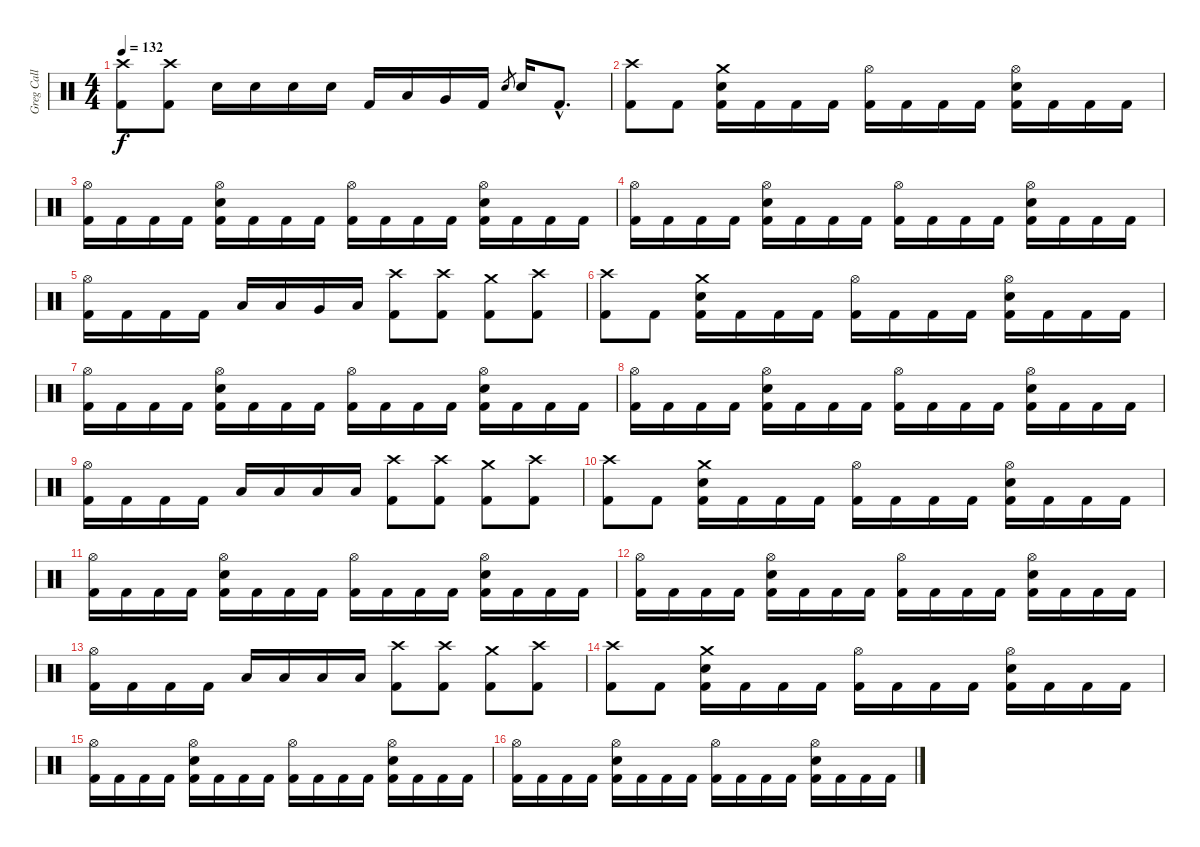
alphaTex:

\track ("Greg Call (Drums)" "Greg Call ") {instrument percussion}
\staff {score}
\articulation defaults
\ts (4 4)
\tempo 132
\clef neutral
\ks c
("Crash high (hit)" "Kick (hit) 2").8{dy f} ("Crash high (hit)" "Kick (hit) 2").8 "Snare (hit) 2".16 "Snare (hit) 2".16 "Snare (hit) 2".16 "Snare (hit) 2".16 "Kick (hit) 2".16 "Low Tom (hit)".16 "Very Low Tom (hit)".16 "Kick (hit) 2".16 "Snare (hit) 2".8{gr} "Snare (hit) 2".16 "Kick (hit) 2"{hac}.8{d} |
("Crash high (hit)" "Kick (hit) 2").8 "Kick (hit) 2".8 ("Crash medium (hit)" "Snare (hit) 2" "Kick (hit) 2").16 "Kick (hit) 2".16 "Kick (hit) 2".16 "Kick (hit) 2".16 ("Hi-Hat (open)" "Kick (hit) 2").16 "Kick (hit) 2".16 "Kick (hit) 2".16 "Kick (hit) 2".16 ("Hi-Hat (open)" "Snare (hit) 2" "Kick (hit) 2").16 "Kick (hit) 2".16 "Kick (hit) 2".16 "Kick (hit) 2".16 |
("Hi-Hat (open)" "Kick (hit) 2").16 "Kick (hit) 2".16 "Kick (hit) 2".16 "Kick (hit) 2".16 ("Hi-Hat (open)" "Snare (hit) 2" "Kick (hit) 2").16 "Kick (hit) 2".16 "Kick (hit) 2".16 "Kick (hit) 2".16 ("Hi-Hat (open)" "Kick (hit) 2").16 "Kick (hit) 2".16 "Kick (hit) 2".16 "Kick (hit) 2".16 ("Hi-Hat (open)" "Snare (hit) 2" "Kick (hit) 2").16 "Kick (hit) 2".16 "Kick (hit) 2".16 "Kick (hit) 2".16 |
("Hi-Hat (open)" "Kick (hit) 2").16 "Kick (hit) 2".16 "Kick (hit) 2".16 "Kick (hit) 2".16 ("Hi-Hat (open)" "Snare (hit) 2" "Kick (hit) 2").16 "Kick (hit) 2".16 "Kick (hit) 2".16 "Kick (hit) 2".16 ("Hi-Hat (open)" "Kick (hit) 2").16 "Kick (hit) 2".16 "Kick (hit) 2".16 "Kick (hit) 2".16 ("Hi-Hat (open)" "Snare (hit) 2" "Kick (hit) 2").16 "Kick (hit) 2".16 "Kick (hit) 2".16 "Kick (hit) 2".16 |
("Hi-Hat (open)" "Kick (hit) 2").16 "Kick (hit) 2".16 "Kick (hit) 2".16 "Kick (hit) 2".16 "Low Tom (hit)".16 "Low Tom (hit)".16 "Very Low Tom (hit)".16 "Low Floor Tom (hit)".16 ("Crash high (hit)" "Kick (hit) 2").8 ("Crash high (hit)" "Kick (hit) 2").8 ("Crash medium (hit)" "Kick (hit) 2").8 ("Crash high (hit)" "Kick (hit) 2").8 |
("Crash high (hit)" "Kick (hit) 2").8 "Kick (hit) 2".8 ("Crash medium (hit)" "Snare (hit) 2" "Kick (hit) 2").16 "Kick (hit) 2".16 "Kick (hit) 2".16 "Kick (hit) 2".16 ("Hi-Hat (open)" "Kick (hit) 2").16 "Kick (hit) 2".16 "Kick (hit) 2".16 "Kick (hit) 2".16 ("Hi-Hat (open)" "Snare (hit) 2" "Kick (hit) 2").16 "Kick (hit) 2".16 "Kick (hit) 2".16 "Kick (hit) 2".16 |
("Hi-Hat (open)" "Kick (hit) 2").16 "Kick (hit) 2".16 "Kick (hit) 2".16 "Kick (hit) 2".16 ("Hi-Hat (open)" "Snare (hit) 2" "Kick (hit) 2").16 "Kick (hit) 2".16 "Kick (hit) 2".16 "Kick (hit) 2".16 ("Hi-Hat (open)" "Kick (hit) 2").16 "Kick (hit) 2".16 "Kick (hit) 2".16 "Kick (hit) 2".16 ("Hi-Hat (open)" "Snare (hit) 2" "Kick (hit) 2").16 "Kick (hit) 2".16 "Kick (hit) 2".16 "Kick (hit) 2".16 |
("Hi-Hat (open)" "Kick (hit) 2").16 "Kick (hit) 2".16 "Kick (hit) 2".16 "Kick (hit) 2".16 ("Hi-Hat (open)" "Snare (hit) 2" "Kick (hit) 2").16 "Kick (hit) 2".16 "Kick (hit) 2".16 "Kick (hit) 2".16 ("Hi-Hat (open)" "Kick (hit) 2").16 "Kick (hit) 2".16 "Kick (hit) 2".16 "Kick (hit) 2".16 ("Hi-Hat (open)" "Snare (hit) 2" "Kick (hit) 2").16 "Kick (hit) 2".16 "Kick (hit) 2".16 "Kick (hit) 2".16 |
("Hi-Hat (open)" "Kick (hit) 2").16 "Kick (hit) 2".16 "Kick (hit) 2".16 "Kick (hit) 2".16 "Low Tom (hit)".16 "Low Tom (hit)".16 "Low Tom (hit)".16 "Low Tom (hit)".16 ("Crash high (hit)" "Kick (hit) 2").8 ("Crash high (hit)" "Kick (hit) 2").8 ("Crash medium (hit)" "Kick (hit) 2").8 ("Crash high (hit)" "Kick (hit) 2").8 |
("Crash high (hit)" "Kick (hit) 2").8 "Kick (hit) 2".8 ("Crash medium (hit)" "Snare (hit) 2" "Kick (hit) 2").16 "Kick (hit) 2".16 "Kick (hit) 2".16 "Kick (hit) 2".16 ("Hi-Hat (open)" "Kick (hit) 2").16 "Kick (hit) 2".16 "Kick (hit) 2".16 "Kick (hit) 2".16 ("Hi-Hat (open)" "Snare (hit) 2" "Kick (hit) 2").16 "Kick (hit) 2".16 "Kick (hit) 2".16 "Kick (hit) 2".16 |
("Hi-Hat (open)" "Kick (hit) 2").16 "Kick (hit) 2".16 "Kick (hit) 2".16 "Kick (hit) 2".16 ("Hi-Hat (open)" "Snare (hit) 2" "Kick (hit) 2").16 "Kick (hit) 2".16 "Kick (hit) 2".16 "Kick (hit) 2".16 ("Hi-Hat (open)" "Kick (hit) 2").16 "Kick (hit) 2".16 "Kick (hit) 2".16 "Kick (hit) 2".16 ("Hi-Hat (open)" "Snare (hit) 2" "Kick (hit) 2").16 "Kick (hit) 2".16 "Kick (hit) 2".16 "Kick (hit) 2".16 |
("Hi-Hat (open)" "Kick (hit) 2").16 "Kick (hit) 2".16 "Kick (hit) 2".16 "Kick (hit) 2".16 ("Hi-Hat (open)" "Snare (hit) 2" "Kick (hit) 2").16 "Kick (hit) 2".16 "Kick (hit) 2".16 "Kick (hit) 2".16 ("Hi-Hat (open)" "Kick (hit) 2").16 "Kick (hit) 2".16 "Kick (hit) 2".16 "Kick (hit) 2".16 ("Hi-Hat (open)" "Snare (hit) 2" "Kick (hit) 2").16 "Kick (hit) 2".16 "Kick (hit) 2".16 "Kick (hit) 2".16 |
("Hi-Hat (open)" "Kick (hit) 2").16 "Kick (hit) 2".16 "Kick (hit) 2".16 "Kick (hit) 2".16 "Low Tom (hit)".16 "Low Tom (hit)".16 "Low Tom (hit)".16 "Low Tom (hit)".16 ("Crash high (hit)" "Kick (hit) 2").8 ("Crash high (hit)" "Kick (hit) 2").8 ("Crash medium (hit)" "Kick (hit) 2").8 ("Crash high (hit)" "Kick (hit) 2").8 |
("Crash high (hit)" "Kick (hit) 2").8 "Kick (hit) 2".8 ("Crash medium (hit)" "Snare (hit) 2" "Kick (hit) 2").16 "Kick (hit) 2".16 "Kick (hit) 2".16 "Kick (hit) 2".16 ("Hi-Hat (open)" "Kick (hit) 2").16 "Kick (hit) 2".16 "Kick (hit) 2".16 "Kick (hit) 2".16 ("Hi-Hat (open)" "Snare (hit) 2" "Kick (hit) 2").16 "Kick (hit) 2".16 "Kick (hit) 2".16 "Kick (hit) 2".16 |
("Hi-Hat (open)" "Kick (hit) 2").16 "Kick (hit) 2".16 "Kick (hit) 2".16 "Kick (hit) 2".16 ("Hi-Hat (open)" "Snare (hit) 2" "Kick (hit) 2").16 "Kick (hit) 2".16 "Kick (hit) 2".16 "Kick (hit) 2".16 ("Hi-Hat (open)" "Kick (hit) 2").16 "Kick (hit) 2".16 "Kick (hit) 2".16 "Kick (hit) 2".16 ("Hi-Hat (open)" "Snare (hit) 2" "Kick (hit) 2").16 "Kick (hit) 2".16 "Kick (hit) 2".16 "Kick (hit) 2".16 |
("Hi-Hat (open)" "Kick (hit) 2").16 "Kick (hit) 2".16 "Kick (hit) 2".16 "Kick (hit) 2".16 ("Hi-Hat (open)" "Snare (hit) 2" "Kick (hit) 2").16 "Kick (hit) 2".16 "Kick (hit) 2".16 "Kick (hit) 2".16 ("Hi-Hat (open)" "Kick (hit) 2").16 "Kick (hit) 2".16 "Kick (hit) 2".16 "Kick (hit) 2".16 ("Hi-Hat (open)" "Snare (hit) 2" "Kick (hit) 2").16 "Kick (hit) 2".16 "Kick (hit) 2".16 "Kick (hit) 2".16
